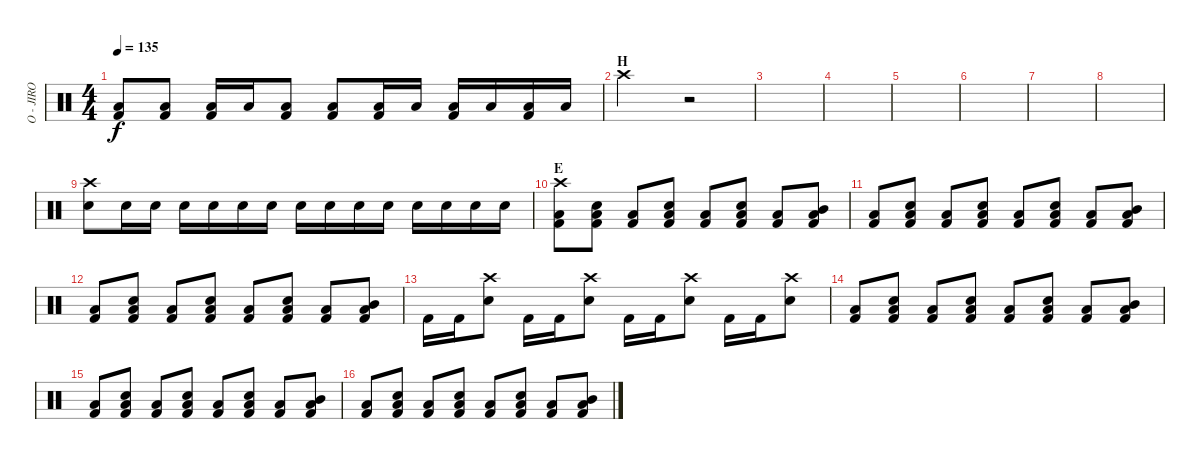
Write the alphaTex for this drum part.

\track ("O - JIRO" "O - JIRO") {instrument percussion}
\staff {score}
\articulation defaults
\ts (4 4)
\tempo 135
\clef neutral
\ks c
("Low Floor Tom (hit)" "Kick (hit) 2").8{dy f} ("Low Floor Tom (hit)" "Kick (hit) 2").8 ("Low Floor Tom (hit)" "Kick (hit) 2").16 "Low Tom (hit)".16 ("Low Floor Tom (hit)" "Kick (hit) 2").8 ("Low Floor Tom (hit)" "Kick (hit) 2").8 ("Low Floor Tom (hit)" "Kick (hit) 2").16 "Low Tom (hit)".16 ("Low Floor Tom (hit)" "Kick (hit) 2").16 "Low Floor Tom (hit)".16 ("Low Tom (hit)" "Kick (hit) 2").16 "Low Tom (hit)".16 |
\section ("" "H")
"Crash high (hit)".2 r.2 |
|
|
|
|
|
|
("Crash high (hit)" "Snare (hit) 2").8 "Snare (hit) 2".16 "Snare (hit) 2".16 "Snare (hit) 2".16 "Snare (hit) 2".16 "Snare (hit) 2".16 "Snare (hit) 2".16 "Snare (hit) 2".16 "Snare (hit) 2".16 "Snare (hit) 2".16 "Snare (hit) 2".16 "Snare (hit) 2".16 "Snare (hit) 2".16 "Snare (hit) 2".16 "Snare (hit) 2".16 |
\section ("" "E")
("Crash high (hit)" "Kick (hit) 2" "Low Floor Tom (hit)").8 ("Snare (hit) 2" "Kick (hit) 2" "Low Floor Tom (hit)").8 ("Kick (hit) 2" "Low Floor Tom (hit)").8 ("Snare (hit) 2" "Kick (hit) 2" "Low Floor Tom (hit)").8 ("Kick (hit) 2" "Low Floor Tom (hit)").8 ("Snare (hit) 2" "Kick (hit) 2" "Low Floor Tom (hit)").8 ("Kick (hit) 2" "Low Floor Tom (hit)").8 ("Mid Tom (hit)" "Kick (hit) 2" "Low Floor Tom (hit)").8 |
("Kick (hit) 2" "Low Floor Tom (hit)").8 ("Snare (hit) 2" "Kick (hit) 2" "Low Floor Tom (hit)").8 ("Kick (hit) 2" "Low Floor Tom (hit)").8 ("Snare (hit) 2" "Kick (hit) 2" "Low Floor Tom (hit)").8 ("Kick (hit) 2" "Low Floor Tom (hit)").8 ("Snare (hit) 2" "Kick (hit) 2" "Low Floor Tom (hit)").8 ("Kick (hit) 2" "Low Floor Tom (hit)").8 ("Mid Tom (hit)" "Kick (hit) 2" "Low Floor Tom (hit)").8 |
("Kick (hit) 2" "Low Floor Tom (hit)").8 ("Snare (hit) 2" "Kick (hit) 2" "Low Floor Tom (hit)").8 ("Kick (hit) 2" "Low Floor Tom (hit)").8 ("Snare (hit) 2" "Kick (hit) 2" "Low Floor Tom (hit)").8 ("Kick (hit) 2" "Low Floor Tom (hit)").8 ("Snare (hit) 2" "Kick (hit) 2" "Low Floor Tom (hit)").8 ("Kick (hit) 2" "Low Floor Tom (hit)").8 ("Mid Tom (hit)" "Kick (hit) 2" "Low Floor Tom (hit)").8 |
"Kick (hit) 2".16 "Kick (hit) 2".16 ("Crash high (hit)" "Snare (hit) 2").8 "Kick (hit) 2".16 "Kick (hit) 2".16 ("Crash high (hit)" "Snare (hit) 2").8 "Kick (hit) 2".16 "Kick (hit) 2".16 ("Crash high (hit)" "Snare (hit) 2").8 "Kick (hit) 2".16 "Kick (hit) 2".16 ("Crash high (hit)" "Snare (hit) 2").8 |
("Kick (hit) 2" "Low Floor Tom (hit)").8 ("Snare (hit) 2" "Kick (hit) 2" "Low Floor Tom (hit)").8 ("Kick (hit) 2" "Low Floor Tom (hit)").8 ("Snare (hit) 2" "Kick (hit) 2" "Low Floor Tom (hit)").8 ("Kick (hit) 2" "Low Floor Tom (hit)").8 ("Snare (hit) 2" "Kick (hit) 2" "Low Floor Tom (hit)").8 ("Kick (hit) 2" "Low Floor Tom (hit)").8 ("Mid Tom (hit)" "Kick (hit) 2" "Low Floor Tom (hit)").8 |
("Kick (hit) 2" "Low Floor Tom (hit)").8 ("Snare (hit) 2" "Kick (hit) 2" "Low Floor Tom (hit)").8 ("Kick (hit) 2" "Low Floor Tom (hit)").8 ("Snare (hit) 2" "Kick (hit) 2" "Low Floor Tom (hit)").8 ("Kick (hit) 2" "Low Floor Tom (hit)").8 ("Snare (hit) 2" "Kick (hit) 2" "Low Floor Tom (hit)").8 ("Kick (hit) 2" "Low Floor Tom (hit)").8 ("Mid Tom (hit)" "Kick (hit) 2" "Low Floor Tom (hit)").8 |
("Kick (hit) 2" "Low Floor Tom (hit)").8 ("Snare (hit) 2" "Kick (hit) 2" "Low Floor Tom (hit)").8 ("Kick (hit) 2" "Low Floor Tom (hit)").8 ("Snare (hit) 2" "Kick (hit) 2" "Low Floor Tom (hit)").8 ("Kick (hit) 2" "Low Floor Tom (hit)").8 ("Snare (hit) 2" "Kick (hit) 2" "Low Floor Tom (hit)").8 ("Kick (hit) 2" "Low Floor Tom (hit)").8 ("Mid Tom (hit)" "Kick (hit) 2" "Low Floor Tom (hit)").8
